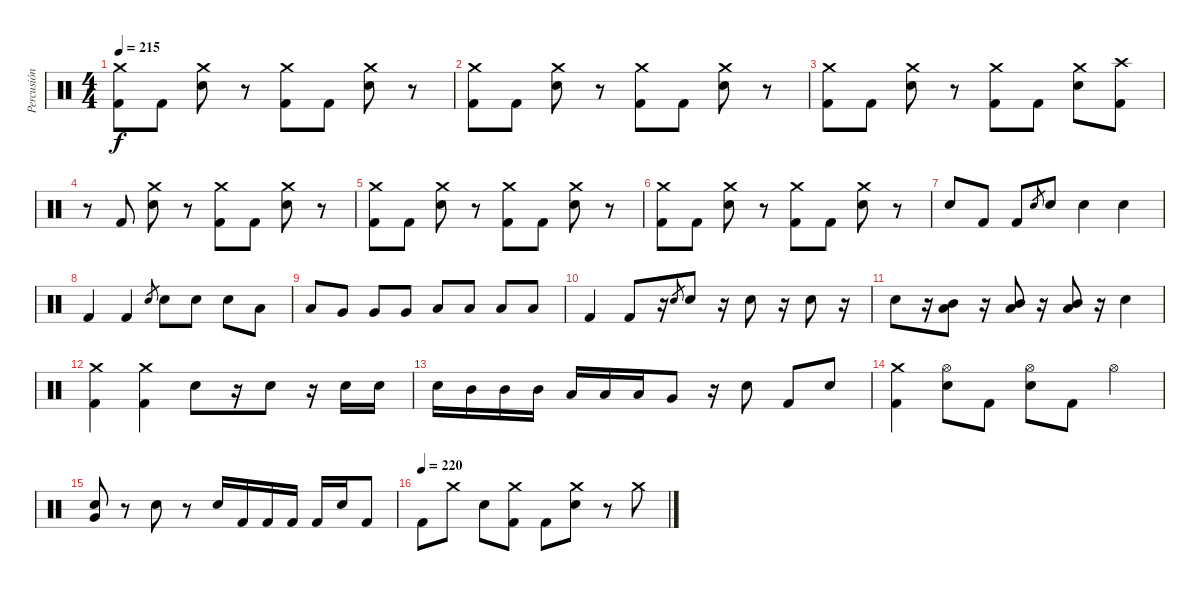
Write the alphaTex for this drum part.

\track ("Percusión" "Percusión") {instrument percussion}
\staff {score}
\articulation defaults
\ts (4 4)
\tempo 215
\clef neutral
\ks c
("Crash medium (hit)" "Kick (hit) 2").8{dy f} "Kick (hit) 2".8 ("Crash medium (hit)" "Electric Snare (hit)").8 r.8 ("Crash medium (hit)" "Kick (hit) 2").8 "Kick (hit) 2".8 ("Crash medium (hit)" "Electric Snare (hit)").8 r.8 |
("Crash medium (hit)" "Kick (hit) 2").8 "Kick (hit) 2".8 ("Crash medium (hit)" "Electric Snare (hit)").8 r.8 ("Crash medium (hit)" "Kick (hit) 2").8 "Kick (hit) 2".8 ("Crash medium (hit)" "Electric Snare (hit)").8 r.8 |
("Crash medium (hit)" "Kick (hit) 2").8 "Kick (hit) 2".8 ("Crash medium (hit)" "Electric Snare (hit)").8 r.8 ("Crash medium (hit)" "Kick (hit) 2").8 "Kick (hit) 2".8 ("Crash medium (hit)" "Electric Snare (hit)").8 ("Crash high (hit)" "Kick (hit) 2").8 |
r.8 "Kick (hit) 2".8 ("Crash medium (hit)" "Electric Snare (hit)").8 r.8 ("Crash medium (hit)" "Kick (hit) 2").8 "Kick (hit) 2".8 ("Crash medium (hit)" "Electric Snare (hit)").8 r.8 |
("Crash medium (hit)" "Kick (hit) 2").8 "Kick (hit) 2".8 ("Crash medium (hit)" "Electric Snare (hit)").8 r.8 ("Crash medium (hit)" "Kick (hit) 2").8 "Kick (hit) 2".8 ("Crash medium (hit)" "Electric Snare (hit)").8 r.8 |
("Crash medium (hit)" "Kick (hit) 2").8 "Kick (hit) 2".8 ("Crash medium (hit)" "Electric Snare (hit)").8 r.8 ("Crash medium (hit)" "Kick (hit) 2").8 "Kick (hit) 2".8 ("Crash medium (hit)" "Electric Snare (hit)").8 r.8 |
"Electric Snare (hit)".8 "Kick (hit) 2".8 "Kick (hit) 2".8 "Electric Snare (hit)".8{gr} "Electric Snare (hit)".8 "Electric Snare (hit)".4 "Electric Snare (hit)".4 |
"Kick (hit) 2".4 "Kick (hit) 2".4 "Electric Snare (hit)".8{gr} "Electric Snare (hit)".8 "Electric Snare (hit)".8 "Electric Snare (hit)".8 "Low Tom (hit)".8 |
"Low Tom (hit)".8 "Very Low Tom (hit)".8 "Very Low Tom (hit)".8 "Very Low Tom (hit)".8 "Low Floor Tom (hit)".8 "Low Floor Tom (hit)".8 "Low Floor Tom (hit)".8 "Low Floor Tom (hit)".8 |
"Kick (hit) 2".4 "Kick (hit) 2".8 r.16 "Electric Snare (hit)".8{gr} "Electric Snare (hit)".8 r.16 "Electric Snare (hit)".8 r.16 "Electric Snare (hit)".8 r.16 |
"Electric Snare (hit)".8 r.16 ("Low Tom (hit)" "Mid Tom (hit)").8 r.16 ("Low Tom (hit)" "Mid Tom (hit)").8 r.16 ("Low Tom (hit)" "Mid Tom (hit)").8 r.16 "Electric Snare (hit)".4 |
("Crash medium (hit)" "Kick (hit) 2").4 ("Crash medium (hit)" "Kick (hit) 2").4 "Electric Snare (hit)".8 r.16 "Electric Snare (hit)".8 r.16 "Electric Snare (hit)".16 "Electric Snare (hit)".16 |
"Electric Snare (hit)".16 "Mid Tom (hit)".16 "Mid Tom (hit)".16 "Mid Tom (hit)".16 "Low Tom (hit)".16 "Low Tom (hit)".16 "Low Tom (hit)".16 "Very Low Tom (hit)".8 r.16 "Electric Snare (hit)".8 "Kick (hit) 2".8 "Electric Snare (hit)".8 |
("Crash medium (hit)" "Kick (hit) 2").4 ("Hi-Hat (open)" "Electric Snare (hit)").8 "Kick (hit) 2".8 ("Hi-Hat (open)" "Electric Snare (hit)").8 "Kick (hit) 2".8 "Hi-Hat (open)".4 |
("Electric Snare (hit)" "Very Low Tom (hit)").8 r.8 "Electric Snare (hit)".8 r.8 "Electric Snare (hit)".16 "Kick (hit) 2".16 "Kick (hit) 2".16 "Kick (hit) 2".16 "Kick (hit) 2".16 "Electric Snare (hit)".16 "Kick (hit) 2".8 |
\tempo (220)
"Kick (hit) 2".8 "Crash medium (hit)".8 "Electric Snare (hit)".8 ("Crash medium (hit)" "Kick (hit) 2").8 "Kick (hit) 2".8 ("Crash medium (hit)" "Electric Snare (hit)").8 r.8 "Crash medium (hit)".8
